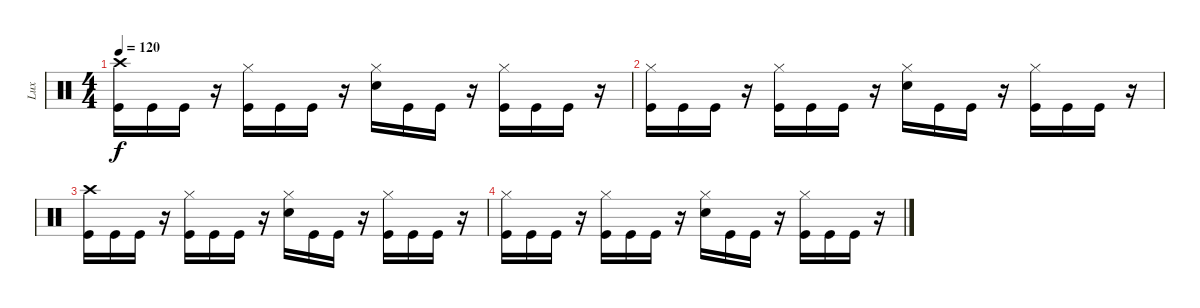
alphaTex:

\track ("Lux" "Lux") {instrument percussion}
\staff {score}
\articulation defaults
\ts (4 4)
\tempo 120
\clef neutral
\ks c
("Crash high (hit)" "Kick (hit)").16{dy f} "Kick (hit)".16 "Kick (hit)".16 r.16 ("Hi-Hat (closed)" "Kick (hit)").16 "Kick (hit)".16 "Kick (hit)".16 r.16 ("Hi-Hat (closed)" "Snare (hit) 2").16 "Kick (hit)".16 "Kick (hit)".16 r.16 ("Hi-Hat (closed)" "Kick (hit)").16 "Kick (hit)".16 "Kick (hit)".16 r.16 |
("Hi-Hat (closed)" "Kick (hit)").16 "Kick (hit)".16 "Kick (hit)".16 r.16 ("Hi-Hat (closed)" "Kick (hit)").16 "Kick (hit)".16 "Kick (hit)".16 r.16 ("Hi-Hat (closed)" "Snare (hit) 2").16 "Kick (hit)".16 "Kick (hit)".16 r.16 ("Hi-Hat (closed)" "Kick (hit)").16 "Kick (hit)".16 "Kick (hit)".16 r.16 |
("Crash high (hit)" "Kick (hit)").16 "Kick (hit)".16 "Kick (hit)".16 r.16 ("Hi-Hat (closed)" "Kick (hit)").16 "Kick (hit)".16 "Kick (hit)".16 r.16 ("Hi-Hat (closed)" "Snare (hit) 2").16 "Kick (hit)".16 "Kick (hit)".16 r.16 ("Hi-Hat (closed)" "Kick (hit)").16 "Kick (hit)".16 "Kick (hit)".16 r.16 |
("Hi-Hat (closed)" "Kick (hit)").16 "Kick (hit)".16 "Kick (hit)".16 r.16 ("Hi-Hat (closed)" "Kick (hit)").16 "Kick (hit)".16 "Kick (hit)".16 r.16 ("Hi-Hat (closed)" "Snare (hit) 2").16 "Kick (hit)".16 "Kick (hit)".16 r.16 ("Hi-Hat (closed)" "Kick (hit)").16 "Kick (hit)".16 "Kick (hit)".16 r.16
